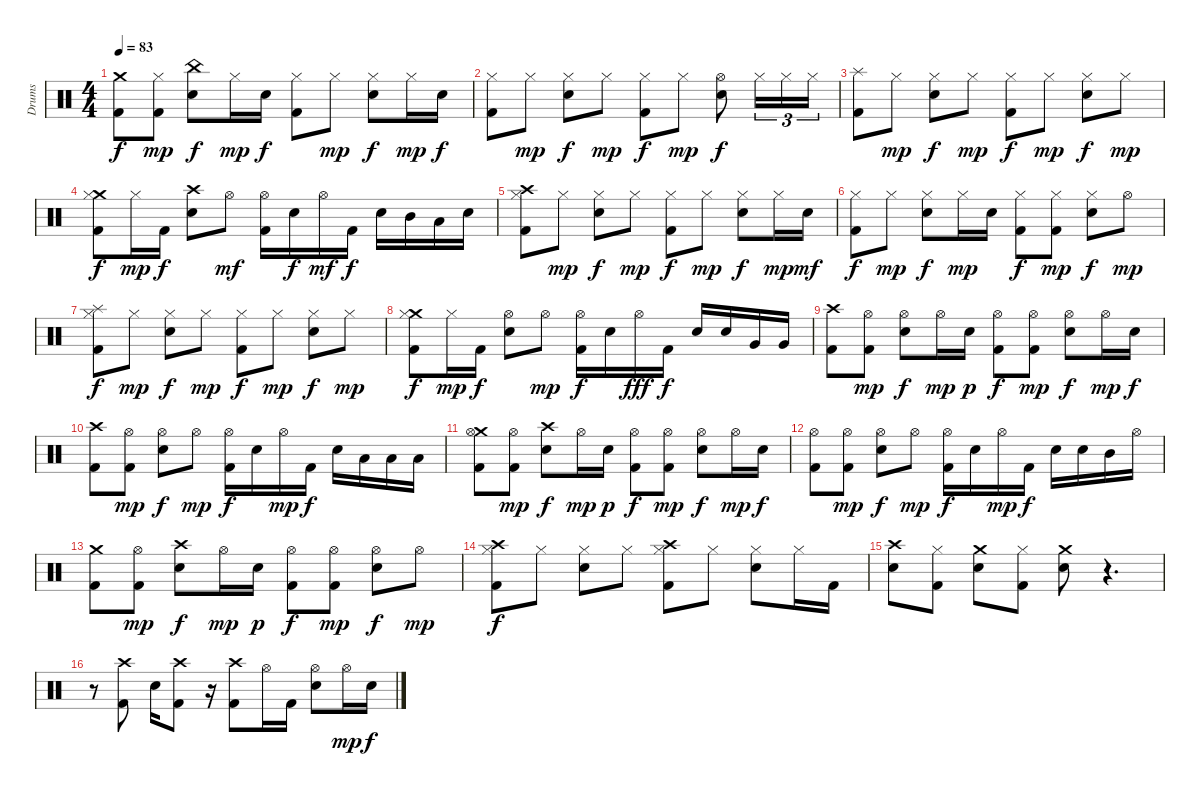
\track ("Drums" "Drums") {instrument percussion}
\staff {score}
\articulation defaults
\ts (4 4)
\tempo 83
\clef neutral
\ks c
("Crash medium (hit)" "Kick (hit) 2").8{dy f} ("Hi-Hat (closed)" "Kick (hit) 2").8{dy mp} ("China (hit)" "Electric Snare (hit)").8{dy f} "Hi-Hat (closed)".16{dy mp} "Electric Snare (hit)".16{dy f} ("Hi-Hat (closed)" "Kick (hit) 2").8 "Hi-Hat (closed)".8{dy mp} ("Hi-Hat (closed)" "Electric Snare (hit)").8{dy f} "Hi-Hat (closed)".16{dy mp} "Electric Snare (hit)".16{dy f} |
("Hi-Hat (closed)" "Kick (hit) 2").8 "Hi-Hat (closed)".8{dy mp} ("Hi-Hat (closed)" "Electric Snare (hit)").8{dy f} "Hi-Hat (closed)".8{dy mp} ("Hi-Hat (closed)" "Kick (hit) 2").8{dy f} "Hi-Hat (closed)".8{dy mp} ("Hi-Hat (open)" "Electric Snare (hit)").8{dy f} "Hi-Hat (closed)".16{tu (3 2)} "Hi-Hat (closed)".16{tu (3 2)} "Hi-Hat (closed)".16{tu (3 2)} |
("Splash (hit)" "Kick (hit) 2").8 "Hi-Hat (closed)".8{dy mp} ("Hi-Hat (closed)" "Electric Snare (hit)").8{dy f} "Hi-Hat (closed)".8{dy mp} ("Hi-Hat (closed)" "Kick (hit) 2").8{dy f} "Hi-Hat (closed)".8{dy mp} ("Hi-Hat (closed)" "Electric Snare (hit)").8{dy f} "Hi-Hat (closed)".8{dy mp} |
("Crash medium (hit)" "Hi-Hat (closed)" "Kick (hit) 2").8{dy f} "Hi-Hat (closed)".16{dy mp} "Kick (hit) 2".16{dy f} ("Crash high (hit)" "Electric Snare (hit)").8 "Hi-Hat (open)".8{dy mf} ("Hi-Hat (open)" "Kick (hit) 2").16 "Electric Snare (hit)".16{dy f} "Hi-Hat (open)".16{dy mf} "Kick (hit) 2".16{dy f} "Electric Snare (hit)".16 "Mid Tom (hit)".16 "Low Tom (hit)".16 "Electric Snare (hit)".16 |
("Crash high (hit)" "Hi-Hat (closed)" "Kick (hit) 2").8 "Hi-Hat (closed)".8{dy mp} ("Hi-Hat (closed)" "Electric Snare (hit)").8{dy f} "Hi-Hat (closed)".8{dy mp} ("Hi-Hat (closed)" "Kick (hit) 2").8{dy f} "Hi-Hat (closed)".8{dy mp} ("Hi-Hat (closed)" "Electric Snare (hit)").8{dy f} "Hi-Hat (closed)".16{dy mp} "Electric Snare (hit)".16{dy mf} |
("Hi-Hat (closed)" "Kick (hit) 2").8{dy f} "Hi-Hat (closed)".8{dy mp} ("Hi-Hat (closed)" "Electric Snare (hit)").8{dy f} "Hi-Hat (closed)".16{dy mp} "Electric Snare (hit)".16 ("Hi-Hat (closed)" "Kick (hit) 2").8{dy f} ("Hi-Hat (closed)" "Kick (hit) 2").8{dy mp} ("Hi-Hat (closed)" "Electric Snare (hit)").8{dy f} "Hi-Hat (open)".8{dy mp} |
("Splash (hit)" "Hi-Hat (closed)" "Kick (hit) 2").8{dy f} "Hi-Hat (closed)".8{dy mp} ("Hi-Hat (closed)" "Electric Snare (hit)").8{dy f} "Hi-Hat (closed)".8{dy mp} ("Hi-Hat (closed)" "Kick (hit) 2").8{dy f} "Hi-Hat (closed)".8{dy mp} ("Hi-Hat (closed)" "Electric Snare (hit)").8{dy f} "Hi-Hat (closed)".8{dy mp} |
("Crash medium (hit)" "Hi-Hat (closed)" "Kick (hit) 2").8{dy f} "Hi-Hat (closed)".16{dy mp} "Kick (hit) 2".16{dy f} ("Hi-Hat (open)" "Electric Snare (hit)").8 "Hi-Hat (open)".8{dy mp} ("Hi-Hat (open)" "Kick (hit) 2").16{dy f} "Electric Snare (hit)".16 "Hi-Hat (open)".16{dy fff} "Kick (hit) 2".16{dy f} "Electric Snare (hit)".16 "Electric Snare (hit)".16 "Very Low Tom (hit)".16 "Very Low Tom (hit)".16 |
("Crash high (hit)" "Kick (hit) 2").8 ("Hi-Hat (open)" "Kick (hit) 2").8{dy mp} ("Hi-Hat (open)" "Electric Snare (hit)").8{dy f} "Hi-Hat (open)".16{dy mp} "Electric Snare (hit)".16{dy p} ("Hi-Hat (open)" "Kick (hit) 2").8{dy f} ("Hi-Hat (open)" "Kick (hit) 2").8{dy mp} ("Hi-Hat (open)" "Electric Snare (hit)").8{dy f} "Hi-Hat (open)".16{dy mp} "Electric Snare (hit)".16{dy f} |
("Crash high (hit)" "Kick (hit) 2").8 ("Hi-Hat (open)" "Kick (hit) 2").8{dy mp} ("Hi-Hat (open)" "Electric Snare (hit)").8{dy f} "Hi-Hat (open)".8{dy mp} ("Hi-Hat (open)" "Kick (hit) 2").16{dy f} "Electric Snare (hit)".16 "Hi-Hat (open)".16{dy mp} "Kick (hit) 2".16{dy f} "Electric Snare (hit)".16 "Low Tom (hit)".16 "Low Tom (hit)".16 "Low Tom (hit)".16 |
("Crash medium (hit)" "Hi-Hat (open)" "Kick (hit) 2").8 ("Hi-Hat (open)" "Kick (hit) 2").8{dy mp} ("Crash high (hit)" "Electric Snare (hit)").8{dy f} "Hi-Hat (open)".16{dy mp} "Electric Snare (hit)".16{dy p} ("Hi-Hat (open)" "Kick (hit) 2").8{dy f} ("Hi-Hat (open)" "Kick (hit) 2").8{dy mp} ("Hi-Hat (open)" "Electric Snare (hit)").8{dy f} "Hi-Hat (open)".16{dy mp} "Electric Snare (hit)".16{dy f} |
("Hi-Hat (open)" "Kick (hit) 2").8 ("Hi-Hat (open)" "Kick (hit) 2").8{dy mp} ("Hi-Hat (open)" "Electric Snare (hit)").8{dy f} "Hi-Hat (open)".8{dy mp} ("Hi-Hat (open)" "Kick (hit) 2").16{dy f} "Electric Snare (hit)".16 "Hi-Hat (open)".16{dy mp} "Kick (hit) 2".16{dy f} "Electric Snare (hit)".16 "Electric Snare (hit)".16 "Mid Tom (hit)".16 "Hi-Hat (open)".16 |
("Crash medium (hit)" "Kick (hit) 2").8 ("Hi-Hat (open)" "Kick (hit) 2").8{dy mp} ("Crash high (hit)" "Electric Snare (hit)").8{dy f} "Hi-Hat (open)".16{dy mp} "Electric Snare (hit)".16{dy p} ("Hi-Hat (open)" "Kick (hit) 2").8{dy f} ("Hi-Hat (open)" "Kick (hit) 2").8{dy mp} ("Hi-Hat (open)" "Electric Snare (hit)").8{dy f} "Hi-Hat (open)".8{dy mp} |
("Crash high (hit)" "Hi-Hat (closed)" "Kick (hit) 2").8{dy f} "Hi-Hat (closed)".8 ("Hi-Hat (closed)" "Electric Snare (hit)").8 "Hi-Hat (closed)".8 ("Crash high (hit)" "Hi-Hat (closed)" "Kick (hit) 2").8 "Hi-Hat (closed)".8 ("Hi-Hat (closed)" "Electric Snare (hit)").8 "Hi-Hat (closed)".16 "Kick (hit) 2".16 |
("Crash high (hit)" "Electric Snare (hit)").8 ("Hi-Hat (closed)" "Kick (hit) 2").8 ("Crash medium (hit)" "Electric Snare (hit)").8 ("Hi-Hat (closed)" "Kick (hit) 2").8 ("Crash medium (hit)" "Electric Snare (hit)").8 r.4{d} |
r.8 ("Crash high (hit)" "Kick (hit) 2").8 "Electric Snare (hit)".16 ("Crash high (hit)" "Kick (hit) 2").8 r.16 ("Crash high (hit)" "Kick (hit) 2").8 "Hi-Hat (open)".16 "Kick (hit) 2".16 ("Hi-Hat (open)" "Electric Snare (hit)").8 "Hi-Hat (open)".16{dy mp} "Electric Snare (hit)".16{dy f}
